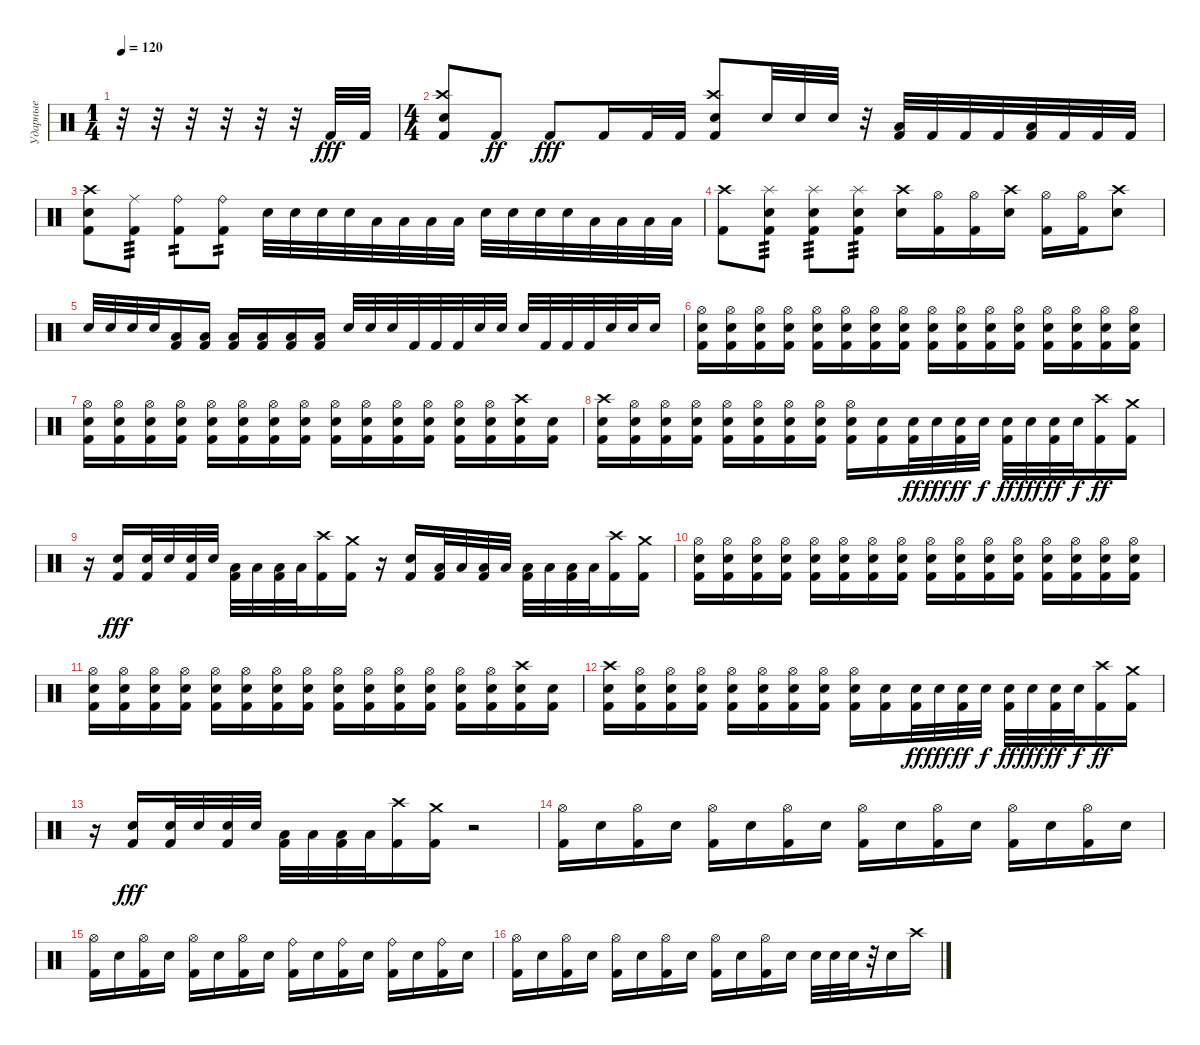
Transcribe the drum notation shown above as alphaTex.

\track ("Ударные" "Ударные") {instrument percussion}
\staff {score}
\articulation defaults
\ts (1 4)
\tempo 120
\clef neutral
\ks c
r.32{dy fff} r.32 r.32 r.32 r.32 r.32 "Kick (hit) 2".32 "Kick (hit) 2".32 |
\ts (4 4)
("Crash high (hit)" "Snare (hit) 2" "Kick (hit) 2").8 "Kick (hit) 2".8{dy ff} "Kick (hit) 2".8{dy fff} "Kick (hit) 2".16 "Kick (hit) 2".32 "Kick (hit) 2".32 ("Crash high (hit)" "Snare (hit) 2" "Kick (hit) 2").8 "Snare (hit) 2".32 "Snare (hit) 2".32 "Snare (hit) 2".32 r.32 ("Low Tom (hit)" "Kick (hit) 2").32 "Kick (hit) 2".32 "Kick (hit) 2".32 "Kick (hit) 2".32 ("Low Floor Tom (hit)" "Kick (hit) 2").32 "Kick (hit) 2".32 "Kick (hit) 2".32 "Kick (hit) 2".32 |
("Crash high (hit)" "Snare (hit) 2" "Kick (hit) 2").8 ("Ride (middle)" "Kick (hit) 2").8{tp 3} ("Ride (bell)" "Kick (hit) 2").8{tp 2} ("Ride (bell)" "Kick (hit) 2").8{tp 2} "Snare (hit) 2".32 "Snare (hit) 2".32 "Snare (hit) 2".32 "Snare (hit) 2".32 "Low Tom (hit)".32 "Low Tom (hit)".32 "Low Tom (hit)".32 "Low Tom (hit)".32 "Snare (hit) 2".32 "Snare (hit) 2".32 "Snare (hit) 2".32 "Snare (hit) 2".32 "Low Floor Tom (hit)".32 "Low Floor Tom (hit)".32 "Low Floor Tom (hit)".32 "Low Floor Tom (hit)".32 |
("Crash high (hit)" "Kick (hit) 2").8 ("Splash (hit)" "Snare (hit) 2" "Kick (hit) 2").8{tp 3} ("Splash (hit)" "Snare (hit) 2" "Kick (hit) 2").8{tp 3} ("Splash (hit)" "Snare (hit) 2" "Kick (hit) 2").8{tp 3} ("Crash high (hit)" "Snare (hit) 2").16 ("Hi-Hat (open)" "Kick (hit) 2").16 ("Hi-Hat (open)" "Kick (hit) 2").16 ("Crash high (hit)" "Snare (hit) 2").16 ("Hi-Hat (open)" "Kick (hit) 2").16 ("Hi-Hat (open)" "Kick (hit) 2").16 ("Crash high (hit)" "Snare (hit) 2").8 |
"Snare (hit) 2".32 "Snare (hit) 2".32 "Snare (hit) 2".32 "Snare (hit) 2".32 ("Low Tom (hit)" "Kick (hit) 2").16 ("Low Tom (hit)" "Kick (hit) 2").16 ("Low Tom (hit)" "Kick (hit) 2").16 ("Low Tom (hit)" "Kick (hit) 2").16 ("Low Floor Tom (hit)" "Kick (hit) 2").16 ("Low Floor Tom (hit)" "Kick (hit) 2").16 "Snare (hit) 2".32 "Snare (hit) 2".32 "Snare (hit) 2".32 "Kick (hit) 2".32 "Kick (hit) 2".32 "Kick (hit) 2".32 "Snare (hit) 2".32 "Snare (hit) 2".32 "Snare (hit) 2".32 "Kick (hit) 2".32 "Kick (hit) 2".32 "Kick (hit) 2".32 "Snare (hit) 2".32 "Snare (hit) 2".32 "Snare (hit) 2".16 |
("Hi-Hat (open)" "Snare (hit) 2" "Kick (hit) 2").16 ("Hi-Hat (open)" "Snare (hit) 2" "Kick (hit) 2").16 ("Hi-Hat (open)" "Snare (hit) 2" "Kick (hit) 2").16 ("Hi-Hat (open)" "Snare (hit) 2" "Kick (hit) 2").16 ("Hi-Hat (open)" "Snare (hit) 2" "Kick (hit) 2").16 ("Hi-Hat (open)" "Snare (hit) 2" "Kick (hit) 2").16 ("Hi-Hat (open)" "Snare (hit) 2" "Kick (hit) 2").16 ("Hi-Hat (open)" "Snare (hit) 2" "Kick (hit) 2").16 ("Hi-Hat (open)" "Snare (hit) 2" "Kick (hit) 2").16 ("Hi-Hat (open)" "Snare (hit) 2" "Kick (hit) 2").16 ("Hi-Hat (open)" "Snare (hit) 2" "Kick (hit) 2").16 ("Hi-Hat (open)" "Snare (hit) 2" "Kick (hit) 2").16 ("Hi-Hat (open)" "Snare (hit) 2" "Kick (hit) 2").16 ("Hi-Hat (open)" "Snare (hit) 2" "Kick (hit) 2").16 ("Hi-Hat (open)" "Snare (hit) 2" "Kick (hit) 2").16 ("Hi-Hat (open)" "Snare (hit) 2" "Kick (hit) 2").16 |
("Hi-Hat (open)" "Snare (hit) 2" "Kick (hit) 2").16 ("Hi-Hat (open)" "Snare (hit) 2" "Kick (hit) 2").16 ("Hi-Hat (open)" "Snare (hit) 2" "Kick (hit) 2").16 ("Hi-Hat (open)" "Snare (hit) 2" "Kick (hit) 2").16 ("Hi-Hat (open)" "Snare (hit) 2" "Kick (hit) 2").16 ("Hi-Hat (open)" "Snare (hit) 2" "Kick (hit) 2").16 ("Hi-Hat (open)" "Snare (hit) 2" "Kick (hit) 2").16 ("Hi-Hat (open)" "Snare (hit) 2" "Kick (hit) 2").16 ("Hi-Hat (open)" "Snare (hit) 2" "Kick (hit) 2").16 ("Hi-Hat (open)" "Snare (hit) 2" "Kick (hit) 2").16 ("Hi-Hat (open)" "Snare (hit) 2" "Kick (hit) 2").16 ("Hi-Hat (open)" "Snare (hit) 2" "Kick (hit) 2").16 ("Hi-Hat (open)" "Snare (hit) 2" "Kick (hit) 2").16 ("Hi-Hat (open)" "Snare (hit) 2" "Kick (hit) 2").16 ("Crash high (hit)" "Snare (hit) 2" "Kick (hit) 2").16 ("Snare (hit) 2" "Kick (hit) 2").16 |
("Crash high (hit)" "Snare (hit) 2" "Kick (hit) 2").16 ("Hi-Hat (open)" "Snare (hit) 2" "Kick (hit) 2").16 ("Hi-Hat (open)" "Snare (hit) 2" "Kick (hit) 2").16 ("Hi-Hat (open)" "Snare (hit) 2" "Kick (hit) 2").16 ("Hi-Hat (open)" "Snare (hit) 2" "Kick (hit) 2").16 ("Hi-Hat (open)" "Snare (hit) 2" "Kick (hit) 2").16 ("Hi-Hat (open)" "Snare (hit) 2" "Kick (hit) 2").16 ("Hi-Hat (open)" "Snare (hit) 2" "Kick (hit) 2").16 ("Hi-Hat (open)" "Snare (hit) 2" "Kick (hit) 2").16 ("Snare (hit) 2" "Kick (hit) 2").16 ("Snare (hit) 2" "Kick (hit) 2").32{dy ff} "Snare (hit) 2".32{dy fff} ("Snare (hit) 2" "Kick (hit) 2").32{dy ff} "Snare (hit) 2".32{dy f} ("Snare (hit) 2" "Kick (hit) 2").32{dy ff} "Snare (hit) 2".32{dy fff} ("Snare (hit) 2" "Kick (hit) 2").32{dy ff} "Snare (hit) 2".32{dy f} ("Crash high (hit)" "Kick (hit) 2").16{dy ff} ("Crash medium (hit)" "Kick (hit) 2").16 |
r.16 ("Snare (hit) 2" "Kick (hit) 2").16{dy fff} ("Snare (hit) 2" "Kick (hit) 2").32 "Snare (hit) 2".32 ("Snare (hit) 2" "Kick (hit) 2").32 "Snare (hit) 2".32 ("Low Tom (hit)" "Kick (hit) 2").32 "Low Tom (hit)".32 ("Low Tom (hit)" "Kick (hit) 2").32 "Low Tom (hit)".32 ("Crash high (hit)" "Kick (hit) 2").16 ("Crash medium (hit)" "Kick (hit) 2").16 r.16 ("Snare (hit) 2" "Kick (hit) 2").16 ("Low Tom (hit)" "Kick (hit) 2").32 "Low Tom (hit)".32 ("Low Tom (hit)" "Kick (hit) 2").32 "Low Tom (hit)".32 ("Low Floor Tom (hit)" "Kick (hit) 2").32 "Low Floor Tom (hit)".32 ("Low Floor Tom (hit)" "Kick (hit) 2").32 "Low Floor Tom (hit)".32 ("Crash high (hit)" "Kick (hit) 2").16 ("Crash medium (hit)" "Kick (hit) 2").16 |
("Hi-Hat (open)" "Snare (hit) 2" "Kick (hit) 2").16 ("Hi-Hat (open)" "Snare (hit) 2" "Kick (hit) 2").16 ("Hi-Hat (open)" "Snare (hit) 2" "Kick (hit) 2").16 ("Hi-Hat (open)" "Snare (hit) 2" "Kick (hit) 2").16 ("Hi-Hat (open)" "Snare (hit) 2" "Kick (hit) 2").16 ("Hi-Hat (open)" "Snare (hit) 2" "Kick (hit) 2").16 ("Hi-Hat (open)" "Snare (hit) 2" "Kick (hit) 2").16 ("Hi-Hat (open)" "Snare (hit) 2" "Kick (hit) 2").16 ("Hi-Hat (open)" "Snare (hit) 2" "Kick (hit) 2").16 ("Hi-Hat (open)" "Snare (hit) 2" "Kick (hit) 2").16 ("Hi-Hat (open)" "Snare (hit) 2" "Kick (hit) 2").16 ("Hi-Hat (open)" "Snare (hit) 2" "Kick (hit) 2").16 ("Hi-Hat (open)" "Snare (hit) 2" "Kick (hit) 2").16 ("Hi-Hat (open)" "Snare (hit) 2" "Kick (hit) 2").16 ("Hi-Hat (open)" "Snare (hit) 2" "Kick (hit) 2").16 ("Hi-Hat (open)" "Snare (hit) 2" "Kick (hit) 2").16 |
("Hi-Hat (open)" "Snare (hit) 2" "Kick (hit) 2").16 ("Hi-Hat (open)" "Snare (hit) 2" "Kick (hit) 2").16 ("Hi-Hat (open)" "Snare (hit) 2" "Kick (hit) 2").16 ("Hi-Hat (open)" "Snare (hit) 2" "Kick (hit) 2").16 ("Hi-Hat (open)" "Snare (hit) 2" "Kick (hit) 2").16 ("Hi-Hat (open)" "Snare (hit) 2" "Kick (hit) 2").16 ("Hi-Hat (open)" "Snare (hit) 2" "Kick (hit) 2").16 ("Hi-Hat (open)" "Snare (hit) 2" "Kick (hit) 2").16 ("Hi-Hat (open)" "Snare (hit) 2" "Kick (hit) 2").16 ("Hi-Hat (open)" "Snare (hit) 2" "Kick (hit) 2").16 ("Hi-Hat (open)" "Snare (hit) 2" "Kick (hit) 2").16 ("Hi-Hat (open)" "Snare (hit) 2" "Kick (hit) 2").16 ("Hi-Hat (open)" "Snare (hit) 2" "Kick (hit) 2").16 ("Hi-Hat (open)" "Snare (hit) 2" "Kick (hit) 2").16 ("Crash high (hit)" "Snare (hit) 2" "Kick (hit) 2").16 ("Snare (hit) 2" "Kick (hit) 2").16 |
("Crash high (hit)" "Snare (hit) 2" "Kick (hit) 2").16 ("Hi-Hat (open)" "Snare (hit) 2" "Kick (hit) 2").16 ("Hi-Hat (open)" "Snare (hit) 2" "Kick (hit) 2").16 ("Hi-Hat (open)" "Snare (hit) 2" "Kick (hit) 2").16 ("Hi-Hat (open)" "Snare (hit) 2" "Kick (hit) 2").16 ("Hi-Hat (open)" "Snare (hit) 2" "Kick (hit) 2").16 ("Hi-Hat (open)" "Snare (hit) 2" "Kick (hit) 2").16 ("Hi-Hat (open)" "Snare (hit) 2" "Kick (hit) 2").16 ("Hi-Hat (open)" "Snare (hit) 2" "Kick (hit) 2").16 ("Snare (hit) 2" "Kick (hit) 2").16 ("Snare (hit) 2" "Kick (hit) 2").32{dy ff} "Snare (hit) 2".32{dy fff} ("Snare (hit) 2" "Kick (hit) 2").32{dy ff} "Snare (hit) 2".32{dy f} ("Snare (hit) 2" "Kick (hit) 2").32{dy ff} "Snare (hit) 2".32{dy fff} ("Snare (hit) 2" "Kick (hit) 2").32{dy ff} "Snare (hit) 2".32{dy f} ("Crash high (hit)" "Kick (hit) 2").16{dy ff} ("Crash medium (hit)" "Kick (hit) 2").16 |
r.16 ("Snare (hit) 2" "Kick (hit) 2").16{dy fff} ("Snare (hit) 2" "Kick (hit) 2").32 "Snare (hit) 2".32 ("Snare (hit) 2" "Kick (hit) 2").32 "Snare (hit) 2".32 ("Low Tom (hit)" "Kick (hit) 2").32 "Low Tom (hit)".32 ("Low Tom (hit)" "Kick (hit) 2").32 "Low Tom (hit)".32 ("Crash high (hit)" "Kick (hit) 2").16 ("Crash medium (hit)" "Kick (hit) 2").16 r.2 |
("Hi-Hat (open)" "Kick (hit) 2").16 "Snare (hit) 2".16 ("Hi-Hat (open)" "Kick (hit) 2").16 "Snare (hit) 2".16 ("Hi-Hat (open)" "Kick (hit) 2").16 "Snare (hit) 2".16 ("Hi-Hat (open)" "Kick (hit) 2").16 "Snare (hit) 2".16 ("Hi-Hat (open)" "Kick (hit) 2").16 "Snare (hit) 2".16 ("Hi-Hat (open)" "Kick (hit) 2").16 "Snare (hit) 2".16 ("Hi-Hat (open)" "Kick (hit) 2").16 "Snare (hit) 2".16 ("Hi-Hat (open)" "Kick (hit) 2").16 "Snare (hit) 2".16 |
("Hi-Hat (open)" "Kick (hit) 2").16 "Snare (hit) 2".16 ("Hi-Hat (open)" "Kick (hit) 2").16 "Snare (hit) 2".16 ("Hi-Hat (open)" "Kick (hit) 2").16 "Snare (hit) 2".16 ("Hi-Hat (open)" "Kick (hit) 2").16 "Snare (hit) 2".16 ("Ride (bell)" "Kick (hit) 2").16 "Snare (hit) 2".16 ("Ride (bell)" "Kick (hit) 2").16 "Snare (hit) 2".16 ("Ride (bell)" "Kick (hit) 2").16 "Snare (hit) 2".16 ("Ride (bell)" "Kick (hit) 2").16 "Snare (hit) 2".16 |
("Hi-Hat (open)" "Kick (hit) 2").16 "Snare (hit) 2".16 ("Hi-Hat (open)" "Kick (hit) 2").16 "Snare (hit) 2".16 ("Hi-Hat (open)" "Kick (hit) 2").16 "Snare (hit) 2".16 ("Hi-Hat (open)" "Kick (hit) 2").16 "Snare (hit) 2".16 ("Hi-Hat (open)" "Kick (hit) 2").16 "Snare (hit) 2".16 ("Hi-Hat (open)" "Kick (hit) 2").16 "Snare (hit) 2".16 "Snare (hit) 2".32 "Snare (hit) 2".32 "Snare (hit) 2".32 r.32 "Snare (hit) 2".16 "Crash high (hit)".16
